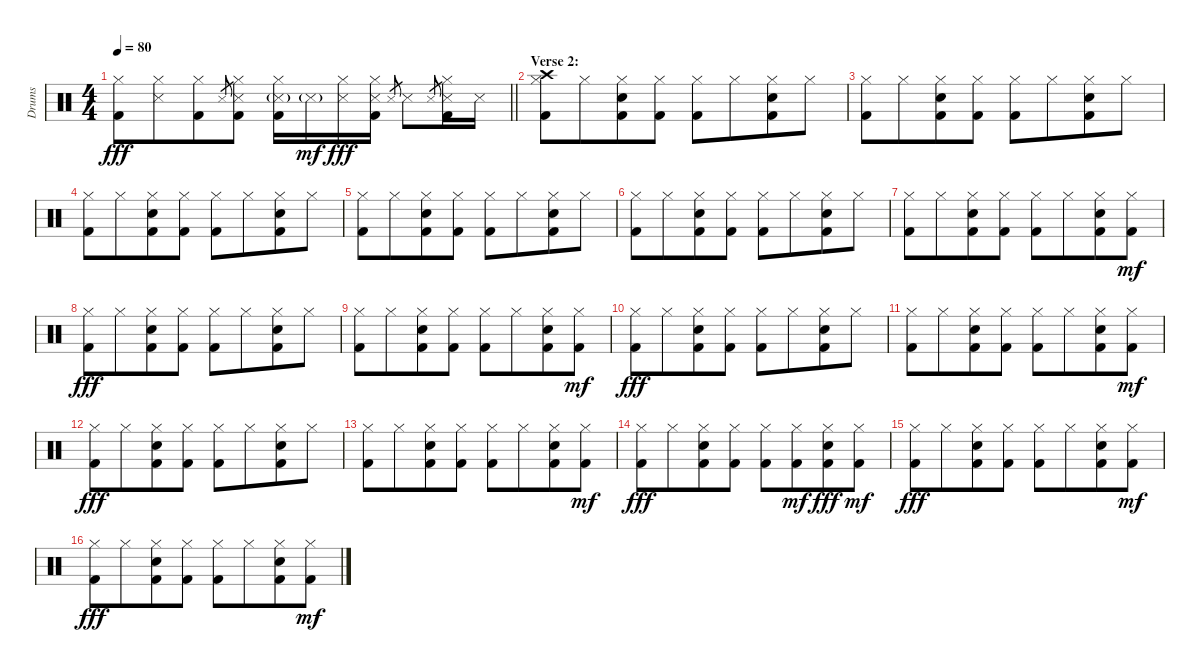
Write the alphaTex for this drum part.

\track ("Drums" "Drums") {instrument percussion}
\staff {score}
\articulation defaults
\ts (4 4)
\tempo 80
\clef neutral
\barLineRight lightlight
\ks c
("Hi-Hat (closed)" "Kick (hit) 2").8{dy fff} ("Hi-Hat (closed)" "Snare (side stick) 3").8{beam merge} ("Hi-Hat (closed)" "Kick (hit) 2").8 "Snare (side stick) 3"{h}.8{gr} ("Hi-Hat (closed)" "Snare (side stick) 3" "Kick (hit) 2").8 ("Hi-Hat (closed)" "Snare (side stick) 3"{g} "Kick (hit) 2").16 "Snare (side stick) 3"{g}.16{dy mf} ("Hi-Hat (closed)" "Snare (side stick) 3").16{dy fff beam merge} ("Hi-Hat (closed)" "Snare (side stick) 3" "Kick (hit) 2").16 "Snare (side stick) 3"{h}.8{gr beam merge} "Snare (side stick) 3".8 "Snare (side stick) 3".8{gr} ("Hi-Hat (closed)" "Snare (side stick) 3" "Kick (hit) 2").16 "Snare (side stick) 3".16 |
\section ("" "Verse 2:")
("Hi-Hat (closed)" "Crash high (hit)" "Kick (hit) 2").8 "Hi-Hat (closed)".8{beam merge} ("Hi-Hat (closed)" "Snare (hit) 2" "Kick (hit) 2").8 ("Hi-Hat (closed)" "Kick (hit) 2").8 ("Hi-Hat (closed)" "Kick (hit) 2").8 "Hi-Hat (closed)".8{beam merge} ("Hi-Hat (closed)" "Snare (hit) 2" "Kick (hit) 2").8 "Hi-Hat (closed)".8 |
("Hi-Hat (closed)" "Kick (hit) 2").8 "Hi-Hat (closed)".8{beam merge} ("Hi-Hat (closed)" "Snare (hit) 2" "Kick (hit) 2").8 ("Hi-Hat (closed)" "Kick (hit) 2").8 ("Hi-Hat (closed)" "Kick (hit) 2").8 "Hi-Hat (closed)".8{beam merge} ("Hi-Hat (closed)" "Snare (hit) 2" "Kick (hit) 2").8 "Hi-Hat (closed)".8 |
("Hi-Hat (closed)" "Kick (hit) 2").8 "Hi-Hat (closed)".8{beam merge} ("Hi-Hat (closed)" "Snare (hit) 2" "Kick (hit) 2").8 ("Hi-Hat (closed)" "Kick (hit) 2").8 ("Hi-Hat (closed)" "Kick (hit) 2").8 "Hi-Hat (closed)".8{beam merge} ("Hi-Hat (closed)" "Snare (hit) 2" "Kick (hit) 2").8 "Hi-Hat (closed)".8 |
("Hi-Hat (closed)" "Kick (hit) 2").8 "Hi-Hat (closed)".8{beam merge} ("Hi-Hat (closed)" "Snare (hit) 2" "Kick (hit) 2").8 ("Hi-Hat (closed)" "Kick (hit) 2").8 ("Hi-Hat (closed)" "Kick (hit) 2").8 "Hi-Hat (closed)".8{beam merge} ("Hi-Hat (closed)" "Snare (hit) 2" "Kick (hit) 2").8 "Hi-Hat (closed)".8 |
("Hi-Hat (closed)" "Kick (hit) 2").8 "Hi-Hat (closed)".8{beam merge} ("Hi-Hat (closed)" "Snare (hit) 2" "Kick (hit) 2").8 ("Hi-Hat (closed)" "Kick (hit) 2").8 ("Hi-Hat (closed)" "Kick (hit) 2").8 "Hi-Hat (closed)".8{beam merge} ("Hi-Hat (closed)" "Snare (hit) 2" "Kick (hit) 2").8 "Hi-Hat (closed)".8 |
("Hi-Hat (closed)" "Kick (hit) 2").8 "Hi-Hat (closed)".8{beam merge} ("Hi-Hat (closed)" "Snare (hit) 2" "Kick (hit) 2").8 ("Hi-Hat (closed)" "Kick (hit) 2").8 ("Hi-Hat (closed)" "Kick (hit) 2").8 "Hi-Hat (closed)".8{beam merge} ("Hi-Hat (closed)" "Snare (hit) 2" "Kick (hit) 2").8 ("Hi-Hat (closed)" "Kick (hit) 2").8{dy mf} |
("Hi-Hat (closed)" "Kick (hit) 2").8{dy fff} "Hi-Hat (closed)".8{beam merge} ("Hi-Hat (closed)" "Snare (hit) 2" "Kick (hit) 2").8 ("Hi-Hat (closed)" "Kick (hit) 2").8 ("Hi-Hat (closed)" "Kick (hit) 2").8 "Hi-Hat (closed)".8{beam merge} ("Hi-Hat (closed)" "Snare (hit) 2" "Kick (hit) 2").8 "Hi-Hat (closed)".8 |
("Hi-Hat (closed)" "Kick (hit) 2").8 "Hi-Hat (closed)".8{beam merge} ("Hi-Hat (closed)" "Snare (hit) 2" "Kick (hit) 2").8 ("Hi-Hat (closed)" "Kick (hit) 2").8 ("Hi-Hat (closed)" "Kick (hit) 2").8 "Hi-Hat (closed)".8{beam merge} ("Hi-Hat (closed)" "Snare (hit) 2" "Kick (hit) 2").8 ("Hi-Hat (closed)" "Kick (hit) 2").8{dy mf} |
("Hi-Hat (closed)" "Kick (hit) 2").8{dy fff} "Hi-Hat (closed)".8{beam merge} ("Hi-Hat (closed)" "Snare (hit) 2" "Kick (hit) 2").8 ("Hi-Hat (closed)" "Kick (hit) 2").8 ("Hi-Hat (closed)" "Kick (hit) 2").8 "Hi-Hat (closed)".8{beam merge} ("Hi-Hat (closed)" "Snare (hit) 2" "Kick (hit) 2").8 "Hi-Hat (closed)".8 |
("Hi-Hat (closed)" "Kick (hit) 2").8 "Hi-Hat (closed)".8{beam merge} ("Hi-Hat (closed)" "Snare (hit) 2" "Kick (hit) 2").8 ("Hi-Hat (closed)" "Kick (hit) 2").8 ("Hi-Hat (closed)" "Kick (hit) 2").8 "Hi-Hat (closed)".8{beam merge} ("Hi-Hat (closed)" "Snare (hit) 2" "Kick (hit) 2").8 ("Hi-Hat (closed)" "Kick (hit) 2").8{dy mf} |
("Hi-Hat (closed)" "Kick (hit) 2").8{dy fff} "Hi-Hat (closed)".8{beam merge} ("Hi-Hat (closed)" "Snare (hit) 2" "Kick (hit) 2").8 ("Hi-Hat (closed)" "Kick (hit) 2").8 ("Hi-Hat (closed)" "Kick (hit) 2").8 "Hi-Hat (closed)".8{beam merge} ("Hi-Hat (closed)" "Snare (hit) 2" "Kick (hit) 2").8 "Hi-Hat (closed)".8 |
("Hi-Hat (closed)" "Kick (hit) 2").8 "Hi-Hat (closed)".8{beam merge} ("Hi-Hat (closed)" "Snare (hit) 2" "Kick (hit) 2").8 ("Hi-Hat (closed)" "Kick (hit) 2").8 ("Hi-Hat (closed)" "Kick (hit) 2").8 "Hi-Hat (closed)".8{beam merge} ("Hi-Hat (closed)" "Snare (hit) 2" "Kick (hit) 2").8 ("Hi-Hat (closed)" "Kick (hit) 2").8{dy mf} |
("Hi-Hat (closed)" "Kick (hit) 2").8{dy fff} "Hi-Hat (closed)".8{beam merge} ("Hi-Hat (closed)" "Snare (hit) 2" "Kick (hit) 2").8 ("Hi-Hat (closed)" "Kick (hit) 2").8 ("Hi-Hat (closed)" "Kick (hit) 2").8 ("Hi-Hat (closed)" "Kick (hit) 2").8{dy mf beam merge} ("Hi-Hat (closed)" "Snare (hit) 2" "Kick (hit) 2").8{dy fff} ("Hi-Hat (closed)" "Kick (hit) 2").8{dy mf} |
("Hi-Hat (closed)" "Kick (hit) 2").8{dy fff} "Hi-Hat (closed)".8{beam merge} ("Hi-Hat (closed)" "Snare (hit) 2" "Kick (hit) 2").8 ("Hi-Hat (closed)" "Kick (hit) 2").8 ("Hi-Hat (closed)" "Kick (hit) 2").8 "Hi-Hat (closed)".8{beam merge} ("Hi-Hat (closed)" "Snare (hit) 2" "Kick (hit) 2").8 ("Hi-Hat (closed)" "Kick (hit) 2").8{dy mf} |
("Hi-Hat (closed)" "Kick (hit) 2").8{dy fff} "Hi-Hat (closed)".8{beam merge} ("Hi-Hat (closed)" "Snare (hit) 2" "Kick (hit) 2").8 ("Hi-Hat (closed)" "Kick (hit) 2").8 ("Hi-Hat (closed)" "Kick (hit) 2").8 "Hi-Hat (closed)".8{beam merge} ("Hi-Hat (closed)" "Snare (hit) 2" "Kick (hit) 2").8 ("Hi-Hat (closed)" "Kick (hit) 2").8{dy mf}
